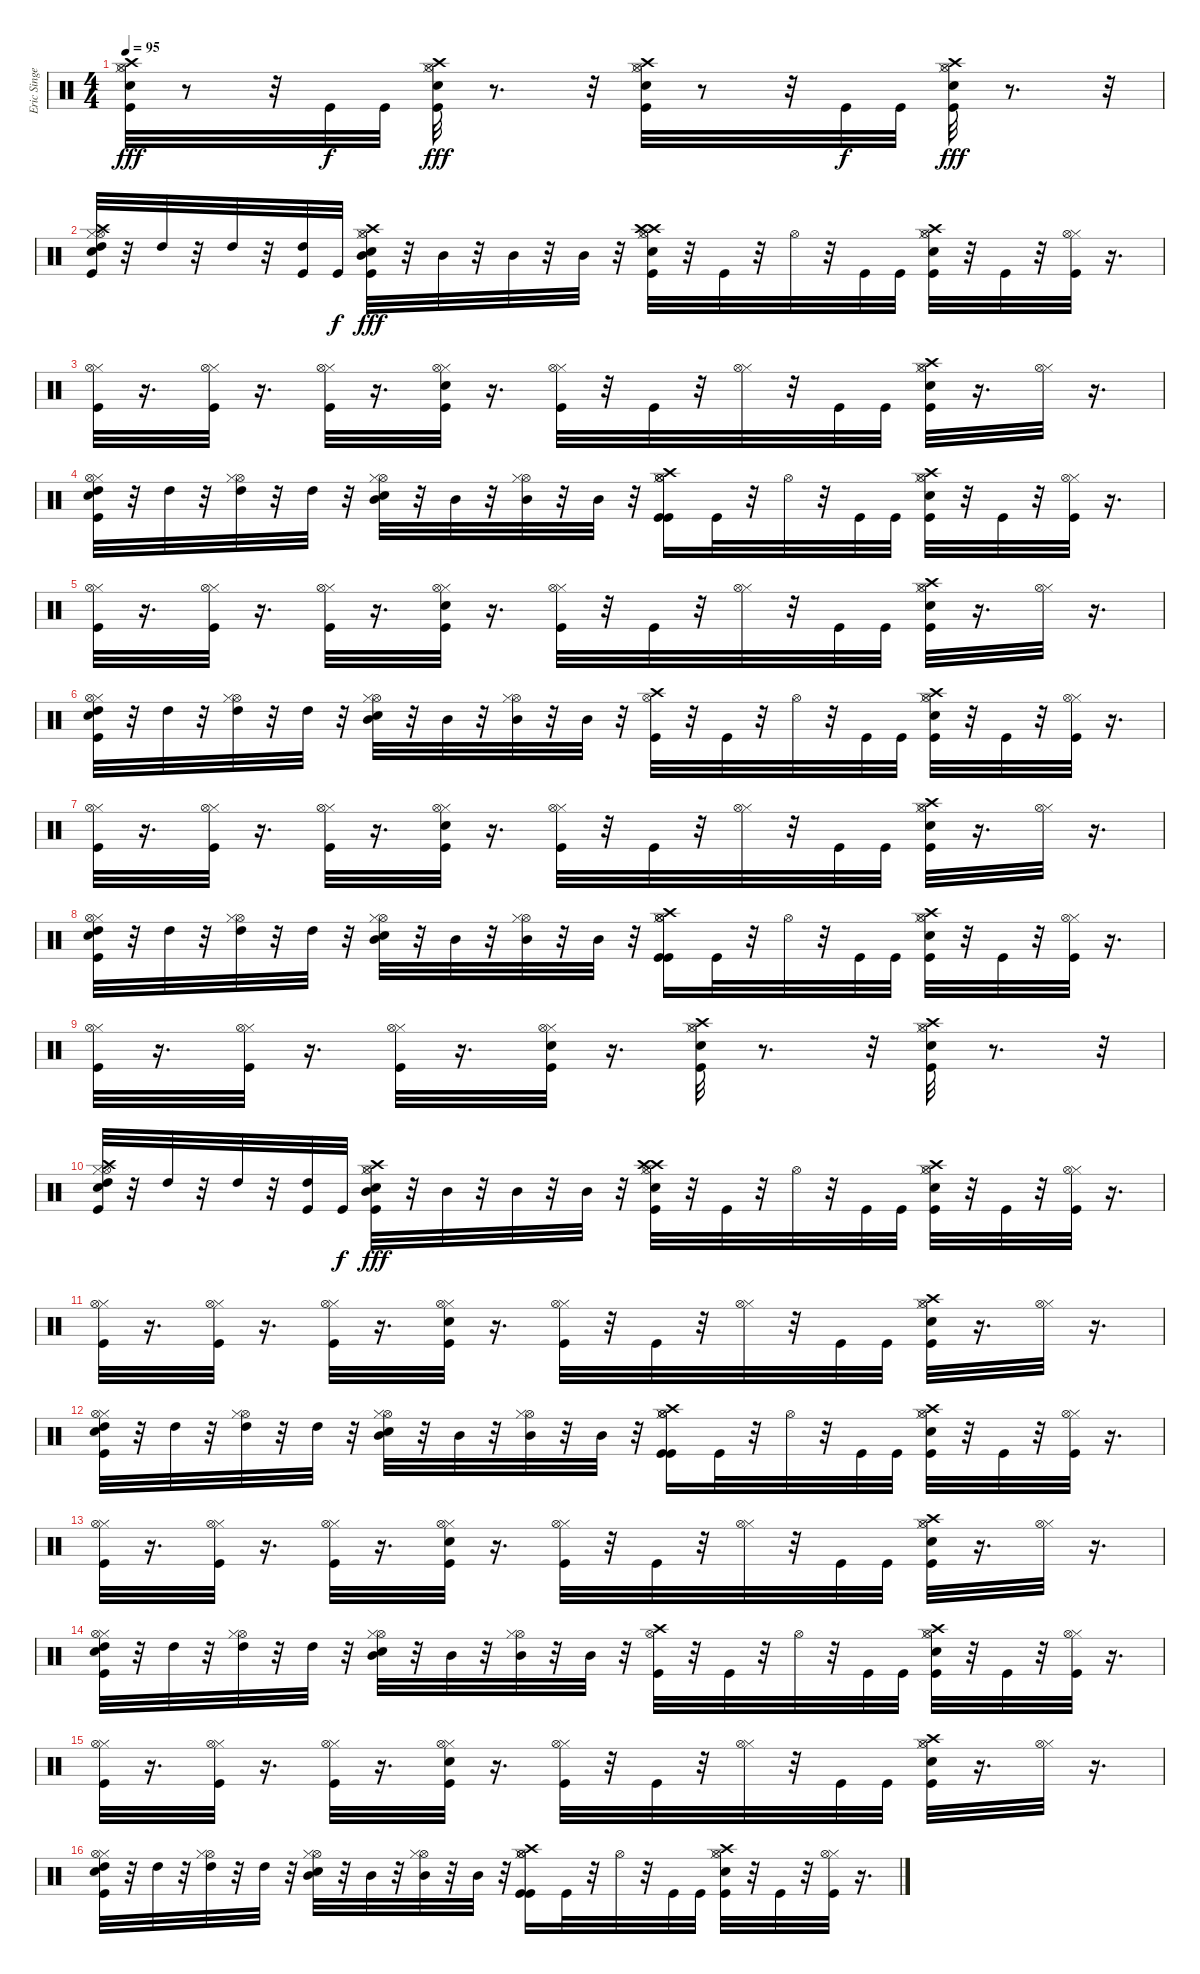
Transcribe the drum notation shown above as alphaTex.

\track ("Eric Singer" "Eric Singe") {instrument percussion}
\staff {score}
\articulation defaults
\ts (4 4)
\tempo 95
\clef neutral
\ks c
("Snare (hit) 2" "Kick (hit)" "Hi-Hat (closed)" "Hi-Hat (open)" "Crash high (hit)").32{dy fff} r.8 r.32 "Kick (hit)".32{dy f} "Kick (hit)".32 ("Kick (hit)" "Snare (hit) 2" "Hi-Hat (closed)" "Hi-Hat (open)" "Crash high (hit)").32{dy fff} r.8{d} r.32 ("Kick (hit)" "Snare (hit) 2" "Hi-Hat (closed)" "Hi-Hat (open)" "Crash high (hit)").32 r.8 r.32 "Kick (hit)".32{dy f} "Kick (hit)".32 ("Kick (hit)" "Snare (hit) 2" "Hi-Hat (closed)" "Hi-Hat (open)" "Crash high (hit)").32{dy fff} r.8{d} r.32 |
("Kick (hit)" "Snare (hit) 2" "Hi-Hat (closed)" "Hi-Hat (open)" "Crash high (hit)" "High Tom (hit)").32 r.32 "High Tom (hit)".32 r.32 "High Tom (hit)".32 r.32 ("Kick (hit)" "High Tom (hit)").32 "Kick (hit)".32{dy f} ("Kick (hit)" "Snare (hit) 2" "Hi-Hat (closed)" "Hi-Hat (open)" "Crash high (hit)" "Mid Tom (hit)").32{dy fff} r.32 "Mid Tom (hit)".32 r.32 "Mid Tom (hit)".32 r.32 "Mid Tom (hit)".32 r.32 ("Kick (hit)" "Snare (hit) 2" "Hi-Hat (closed)" "Hi-Hat (open)" "Crash high (hit)" "Crash high (hit)").32 r.32 "Kick (hit)".32 r.32 "Hi-Hat (open)".32 r.32 "Kick (hit)".32 "Kick (hit)".32 ("Kick (hit)" "Hi-Hat (open)" "Hi-Hat (closed)" "Crash high (hit)" "Snare (hit) 2").32 r.32 "Kick (hit)".32 r.32 ("Hi-Hat (closed)" "Kick (hit)" "Hi-Hat (open)").32 r.16{d} |
("Hi-Hat (closed)" "Kick (hit)" "Hi-Hat (open)").32 r.16{d} ("Hi-Hat (closed)" "Kick (hit)" "Hi-Hat (open)").32 r.16{d} ("Kick (hit)" "Hi-Hat (closed)" "Hi-Hat (open)").32 r.16{d} ("Hi-Hat (closed)" "Kick (hit)" "Snare (hit) 2" "Hi-Hat (open)").32 r.16{d} ("Kick (hit)" "Hi-Hat (closed)" "Hi-Hat (open)").32 r.32 "Kick (hit)".32 r.32 ("Hi-Hat (closed)" "Hi-Hat (open)").32 r.32 "Kick (hit)".32 "Kick (hit)".32 ("Kick (hit)" "Snare (hit) 2" "Crash high (hit)" "Hi-Hat (closed)" "Hi-Hat (open)").32 r.16{d} ("Hi-Hat (closed)" "Hi-Hat (open)").32 r.16{d} |
("Kick (hit)" "Snare (hit) 2" "High Tom (hit)" "Hi-Hat (closed)" "Hi-Hat (open)").32 r.32 "High Tom (hit)".32 r.32 ("Hi-Hat (open)" "Hi-Hat (closed)" "High Tom (hit)").32 r.32 "High Tom (hit)".32 r.32 ("Hi-Hat (open)" "Hi-Hat (closed)" "Snare (hit) 2" "Mid Tom (hit)").32 r.32 "Mid Tom (hit)".32 r.32 ("Hi-Hat (open)" "Hi-Hat (closed)" "Mid Tom (hit)").32 r.32 "Mid Tom (hit)".32 r.32 ("Hi-Hat (open)" "Hi-Hat (closed)" "Kick (hit)" "Crash high (hit)" "Hi-Hat (open)" "Kick (hit)").16 "Kick (hit)".32 r.32 "Hi-Hat (open)".32 r.32 "Kick (hit)".32 "Kick (hit)".32 ("Kick (hit)" "Hi-Hat (open)" "Hi-Hat (closed)" "Crash high (hit)" "Snare (hit) 2").32 r.32 "Kick (hit)".32 r.32 ("Hi-Hat (closed)" "Kick (hit)" "Hi-Hat (open)").32 r.16{d} |
("Hi-Hat (closed)" "Kick (hit)" "Hi-Hat (open)").32 r.16{d} ("Hi-Hat (closed)" "Kick (hit)" "Hi-Hat (open)").32 r.16{d} ("Kick (hit)" "Hi-Hat (closed)" "Hi-Hat (open)").32 r.16{d} ("Hi-Hat (closed)" "Kick (hit)" "Snare (hit) 2" "Hi-Hat (open)").32 r.16{d} ("Kick (hit)" "Hi-Hat (closed)" "Hi-Hat (open)").32 r.32 "Kick (hit)".32 r.32 ("Hi-Hat (closed)" "Hi-Hat (open)").32 r.32 "Kick (hit)".32 "Kick (hit)".32 ("Kick (hit)" "Snare (hit) 2" "Crash high (hit)" "Hi-Hat (closed)" "Hi-Hat (open)").32 r.16{d} ("Hi-Hat (closed)" "Hi-Hat (open)").32 r.16{d} |
("Kick (hit)" "Snare (hit) 2" "High Tom (hit)" "Hi-Hat (closed)" "Hi-Hat (open)").32 r.32 "High Tom (hit)".32 r.32 ("Hi-Hat (open)" "Hi-Hat (closed)" "High Tom (hit)").32 r.32 "High Tom (hit)".32 r.32 ("Hi-Hat (open)" "Hi-Hat (closed)" "Snare (hit) 2" "Mid Tom (hit)").32 r.32 "Mid Tom (hit)".32 r.32 ("Hi-Hat (open)" "Hi-Hat (closed)" "Mid Tom (hit)").32 r.32 "Mid Tom (hit)".32 r.32 ("Crash high (hit)" "Hi-Hat (open)" "Kick (hit)").32 r.32 "Kick (hit)".32 r.32 "Hi-Hat (open)".32 r.32 "Kick (hit)".32 "Kick (hit)".32 ("Kick (hit)" "Hi-Hat (open)" "Hi-Hat (closed)" "Crash high (hit)" "Snare (hit) 2").32 r.32 "Kick (hit)".32 r.32 ("Hi-Hat (closed)" "Kick (hit)" "Hi-Hat (open)").32 r.16{d} |
("Hi-Hat (closed)" "Kick (hit)" "Hi-Hat (open)").32 r.16{d} ("Hi-Hat (closed)" "Kick (hit)" "Hi-Hat (open)").32 r.16{d} ("Kick (hit)" "Hi-Hat (closed)" "Hi-Hat (open)").32 r.16{d} ("Hi-Hat (closed)" "Kick (hit)" "Snare (hit) 2" "Hi-Hat (open)").32 r.16{d} ("Kick (hit)" "Hi-Hat (closed)" "Hi-Hat (open)").32 r.32 "Kick (hit)".32 r.32 ("Hi-Hat (closed)" "Hi-Hat (open)").32 r.32 "Kick (hit)".32 "Kick (hit)".32 ("Kick (hit)" "Snare (hit) 2" "Crash high (hit)" "Hi-Hat (closed)" "Hi-Hat (open)").32 r.16{d} ("Hi-Hat (closed)" "Hi-Hat (open)").32 r.16{d} |
("Kick (hit)" "Snare (hit) 2" "High Tom (hit)" "Hi-Hat (closed)" "Hi-Hat (open)").32 r.32 "High Tom (hit)".32 r.32 ("Hi-Hat (open)" "Hi-Hat (closed)" "High Tom (hit)").32 r.32 "High Tom (hit)".32 r.32 ("Hi-Hat (open)" "Hi-Hat (closed)" "Snare (hit) 2" "Mid Tom (hit)").32 r.32 "Mid Tom (hit)".32 r.32 ("Hi-Hat (open)" "Hi-Hat (closed)" "Mid Tom (hit)").32 r.32 "Mid Tom (hit)".32 r.32 ("Hi-Hat (open)" "Hi-Hat (closed)" "Kick (hit)" "Crash high (hit)" "Hi-Hat (open)" "Kick (hit)").16 "Kick (hit)".32 r.32 "Hi-Hat (open)".32 r.32 "Kick (hit)".32 "Kick (hit)".32 ("Kick (hit)" "Hi-Hat (open)" "Hi-Hat (closed)" "Crash high (hit)" "Snare (hit) 2").32 r.32 "Kick (hit)".32 r.32 ("Hi-Hat (closed)" "Kick (hit)" "Hi-Hat (open)").32 r.16{d} |
("Hi-Hat (closed)" "Kick (hit)" "Hi-Hat (open)").32 r.16{d} ("Hi-Hat (closed)" "Kick (hit)" "Hi-Hat (open)").32 r.16{d} ("Kick (hit)" "Hi-Hat (closed)" "Hi-Hat (open)").32 r.16{d} ("Hi-Hat (closed)" "Kick (hit)" "Snare (hit) 2" "Hi-Hat (open)").32 r.16{d} ("Snare (hit) 2" "Crash high (hit)" "Kick (hit)" "Hi-Hat (closed)" "Hi-Hat (open)").32 r.8{d} r.32 ("Kick (hit)" "Snare (hit) 2" "Hi-Hat (closed)" "Crash high (hit)" "Hi-Hat (open)").32 r.8{d} r.32 |
("Kick (hit)" "Snare (hit) 2" "Hi-Hat (closed)" "Hi-Hat (open)" "Crash high (hit)" "High Tom (hit)").32 r.32 "High Tom (hit)".32 r.32 "High Tom (hit)".32 r.32 ("Kick (hit)" "High Tom (hit)").32 "Kick (hit)".32{dy f} ("Kick (hit)" "Snare (hit) 2" "Hi-Hat (closed)" "Hi-Hat (open)" "Crash high (hit)" "Mid Tom (hit)").32{dy fff} r.32 "Mid Tom (hit)".32 r.32 "Mid Tom (hit)".32 r.32 "Mid Tom (hit)".32 r.32 ("Kick (hit)" "Snare (hit) 2" "Hi-Hat (closed)" "Hi-Hat (open)" "Crash high (hit)" "Crash high (hit)").32 r.32 "Kick (hit)".32 r.32 "Hi-Hat (open)".32 r.32 "Kick (hit)".32 "Kick (hit)".32 ("Kick (hit)" "Hi-Hat (open)" "Hi-Hat (closed)" "Crash high (hit)" "Snare (hit) 2").32 r.32 "Kick (hit)".32 r.32 ("Hi-Hat (closed)" "Kick (hit)" "Hi-Hat (open)").32 r.16{d} |
("Hi-Hat (closed)" "Kick (hit)" "Hi-Hat (open)").32 r.16{d} ("Hi-Hat (closed)" "Kick (hit)" "Hi-Hat (open)").32 r.16{d} ("Kick (hit)" "Hi-Hat (closed)" "Hi-Hat (open)").32 r.16{d} ("Hi-Hat (closed)" "Kick (hit)" "Snare (hit) 2" "Hi-Hat (open)").32 r.16{d} ("Kick (hit)" "Hi-Hat (closed)" "Hi-Hat (open)").32 r.32 "Kick (hit)".32 r.32 ("Hi-Hat (closed)" "Hi-Hat (open)").32 r.32 "Kick (hit)".32 "Kick (hit)".32 ("Kick (hit)" "Snare (hit) 2" "Crash high (hit)" "Hi-Hat (closed)" "Hi-Hat (open)").32 r.16{d} ("Hi-Hat (closed)" "Hi-Hat (open)").32 r.16{d} |
("Kick (hit)" "Snare (hit) 2" "High Tom (hit)" "Hi-Hat (closed)" "Hi-Hat (open)").32 r.32 "High Tom (hit)".32 r.32 ("Hi-Hat (open)" "Hi-Hat (closed)" "High Tom (hit)").32 r.32 "High Tom (hit)".32 r.32 ("Hi-Hat (open)" "Hi-Hat (closed)" "Snare (hit) 2" "Mid Tom (hit)").32 r.32 "Mid Tom (hit)".32 r.32 ("Hi-Hat (open)" "Hi-Hat (closed)" "Mid Tom (hit)").32 r.32 "Mid Tom (hit)".32 r.32 ("Hi-Hat (open)" "Hi-Hat (closed)" "Kick (hit)" "Crash high (hit)" "Hi-Hat (open)" "Kick (hit)").16 "Kick (hit)".32 r.32 "Hi-Hat (open)".32 r.32 "Kick (hit)".32 "Kick (hit)".32 ("Kick (hit)" "Hi-Hat (open)" "Hi-Hat (closed)" "Crash high (hit)" "Snare (hit) 2").32 r.32 "Kick (hit)".32 r.32 ("Hi-Hat (closed)" "Kick (hit)" "Hi-Hat (open)").32 r.16{d} |
("Hi-Hat (closed)" "Kick (hit)" "Hi-Hat (open)").32 r.16{d} ("Hi-Hat (closed)" "Kick (hit)" "Hi-Hat (open)").32 r.16{d} ("Kick (hit)" "Hi-Hat (closed)" "Hi-Hat (open)").32 r.16{d} ("Hi-Hat (closed)" "Kick (hit)" "Snare (hit) 2" "Hi-Hat (open)").32 r.16{d} ("Kick (hit)" "Hi-Hat (closed)" "Hi-Hat (open)").32 r.32 "Kick (hit)".32 r.32 ("Hi-Hat (closed)" "Hi-Hat (open)").32 r.32 "Kick (hit)".32 "Kick (hit)".32 ("Kick (hit)" "Snare (hit) 2" "Crash high (hit)" "Hi-Hat (closed)" "Hi-Hat (open)").32 r.16{d} ("Hi-Hat (closed)" "Hi-Hat (open)").32 r.16{d} |
("Kick (hit)" "Snare (hit) 2" "High Tom (hit)" "Hi-Hat (closed)" "Hi-Hat (open)").32 r.32 "High Tom (hit)".32 r.32 ("Hi-Hat (open)" "Hi-Hat (closed)" "High Tom (hit)").32 r.32 "High Tom (hit)".32 r.32 ("Hi-Hat (open)" "Hi-Hat (closed)" "Snare (hit) 2" "Mid Tom (hit)").32 r.32 "Mid Tom (hit)".32 r.32 ("Hi-Hat (open)" "Hi-Hat (closed)" "Mid Tom (hit)").32 r.32 "Mid Tom (hit)".32 r.32 ("Crash high (hit)" "Hi-Hat (open)" "Kick (hit)").32 r.32 "Kick (hit)".32 r.32 "Hi-Hat (open)".32 r.32 "Kick (hit)".32 "Kick (hit)".32 ("Kick (hit)" "Hi-Hat (open)" "Hi-Hat (closed)" "Crash high (hit)" "Snare (hit) 2").32 r.32 "Kick (hit)".32 r.32 ("Hi-Hat (closed)" "Kick (hit)" "Hi-Hat (open)").32 r.16{d} |
("Hi-Hat (closed)" "Kick (hit)" "Hi-Hat (open)").32 r.16{d} ("Hi-Hat (closed)" "Kick (hit)" "Hi-Hat (open)").32 r.16{d} ("Kick (hit)" "Hi-Hat (closed)" "Hi-Hat (open)").32 r.16{d} ("Hi-Hat (closed)" "Kick (hit)" "Snare (hit) 2" "Hi-Hat (open)").32 r.16{d} ("Kick (hit)" "Hi-Hat (closed)" "Hi-Hat (open)").32 r.32 "Kick (hit)".32 r.32 ("Hi-Hat (closed)" "Hi-Hat (open)").32 r.32 "Kick (hit)".32 "Kick (hit)".32 ("Kick (hit)" "Snare (hit) 2" "Crash high (hit)" "Hi-Hat (closed)" "Hi-Hat (open)").32 r.16{d} ("Hi-Hat (closed)" "Hi-Hat (open)").32 r.16{d} |
("Kick (hit)" "Snare (hit) 2" "High Tom (hit)" "Hi-Hat (closed)" "Hi-Hat (open)").32 r.32 "High Tom (hit)".32 r.32 ("Hi-Hat (open)" "Hi-Hat (closed)" "High Tom (hit)").32 r.32 "High Tom (hit)".32 r.32 ("Hi-Hat (open)" "Hi-Hat (closed)" "Snare (hit) 2" "Mid Tom (hit)").32 r.32 "Mid Tom (hit)".32 r.32 ("Hi-Hat (open)" "Hi-Hat (closed)" "Mid Tom (hit)").32 r.32 "Mid Tom (hit)".32 r.32 ("Hi-Hat (open)" "Hi-Hat (closed)" "Kick (hit)" "Crash high (hit)" "Hi-Hat (open)" "Kick (hit)").16 "Kick (hit)".32 r.32 "Hi-Hat (open)".32 r.32 "Kick (hit)".32 "Kick (hit)".32 ("Kick (hit)" "Hi-Hat (open)" "Hi-Hat (closed)" "Crash high (hit)" "Snare (hit) 2").32 r.32 "Kick (hit)".32 r.32 ("Hi-Hat (closed)" "Kick (hit)" "Hi-Hat (open)").32 r.16{d}
